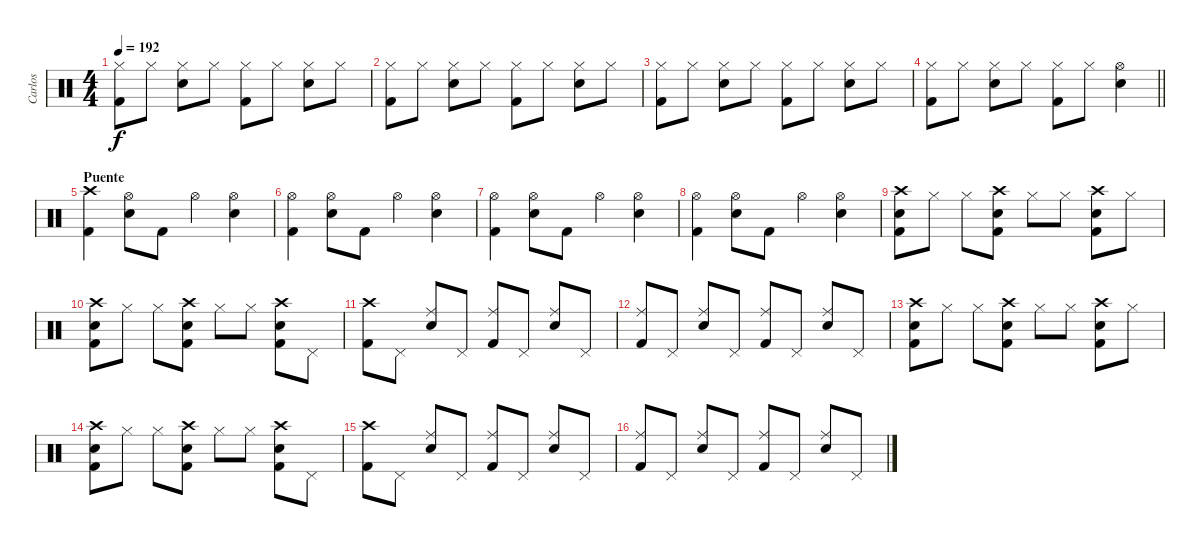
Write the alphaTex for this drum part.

\track ("Carlos" "Carlos") {instrument percussion}
\staff {score}
\articulation defaults
\ts (4 4)
\tempo 192
\clef neutral
\ks c
("Hi-Hat (closed)" "Kick (hit) 2").8{dy f} "Hi-Hat (closed)".8 ("Hi-Hat (closed)" "Snare (hit) 2").8 "Hi-Hat (closed)".8 ("Hi-Hat (closed)" "Kick (hit) 2").8 "Hi-Hat (closed)".8 ("Hi-Hat (closed)" "Snare (hit) 2").8 "Hi-Hat (closed)".8 |
("Hi-Hat (closed)" "Kick (hit) 2").8 "Hi-Hat (closed)".8 ("Hi-Hat (closed)" "Snare (hit) 2").8 "Hi-Hat (closed)".8 ("Hi-Hat (closed)" "Kick (hit) 2").8 "Hi-Hat (closed)".8 ("Hi-Hat (closed)" "Snare (hit) 2").8 "Hi-Hat (closed)".8 |
("Hi-Hat (closed)" "Kick (hit) 2").8 "Hi-Hat (closed)".8 ("Hi-Hat (closed)" "Snare (hit) 2").8 "Hi-Hat (closed)".8 ("Hi-Hat (closed)" "Kick (hit) 2").8 "Hi-Hat (closed)".8 ("Hi-Hat (closed)" "Snare (hit) 2").8 "Hi-Hat (closed)".8 |
\barLineRight lightlight
("Hi-Hat (closed)" "Kick (hit) 2").8 "Hi-Hat (closed)".8 ("Hi-Hat (closed)" "Snare (hit) 2").8 "Hi-Hat (closed)".8 ("Hi-Hat (closed)" "Kick (hit) 2").8 "Hi-Hat (closed)".8 ("Hi-Hat (open)" "Snare (hit) 2").4 |
\section ("" "Puente")
("Crash high (hit)" "Kick (hit) 2").4 ("Hi-Hat (open)" "Snare (hit) 2").8 "Kick (hit) 2".8 "Hi-Hat (open)".4 ("Hi-Hat (open)" "Snare (hit) 2").4 |
("Hi-Hat (open)" "Kick (hit) 2").4 ("Hi-Hat (open)" "Snare (hit) 2").8 "Kick (hit) 2".8 "Hi-Hat (open)".4 ("Hi-Hat (open)" "Snare (hit) 2").4 |
("Hi-Hat (open)" "Kick (hit) 2").4 ("Hi-Hat (open)" "Snare (hit) 2").8 "Kick (hit) 2".8 "Hi-Hat (open)".4 ("Hi-Hat (open)" "Snare (hit) 2").4 |
("Hi-Hat (open)" "Kick (hit) 2").4 ("Hi-Hat (open)" "Snare (hit) 2").8 "Kick (hit) 2".8 "Hi-Hat (open)".4 ("Hi-Hat (open)" "Snare (hit) 2").4 |
("Crash high (hit)" "Kick (hit) 2" "Snare (hit) 2").8 "Hi-Hat (closed)".8 "Hi-Hat (closed)".8 ("Crash high (hit)" "Kick (hit) 2" "Snare (hit) 2").8 "Hi-Hat (closed)".8 "Hi-Hat (closed)".8 ("Crash high (hit)" "Kick (hit) 2" "Snare (hit) 2").8 "Hi-Hat (closed)".8 |
("Crash high (hit)" "Kick (hit) 2" "Snare (hit) 2").8 "Hi-Hat (closed)".8 "Hi-Hat (closed)".8 ("Crash high (hit)" "Kick (hit) 2" "Snare (hit) 2").8 "Hi-Hat (closed)".8 "Hi-Hat (closed)".8 ("Crash high (hit)" "Kick (hit) 2" "Snare (hit) 2").8 "Pedal Hi-Hat (hit)".8 |
("Crash high (hit)" "Kick (hit) 2").8 "Pedal Hi-Hat (hit)".8 ("Ride (middle)" "Snare (hit) 2").8 "Pedal Hi-Hat (hit)".8 ("Ride (middle)" "Kick (hit) 2").8 "Pedal Hi-Hat (hit)".8 ("Ride (middle)" "Snare (hit) 2").8 "Pedal Hi-Hat (hit)".8 |
("Ride (middle)" "Kick (hit) 2").8 "Pedal Hi-Hat (hit)".8 ("Ride (middle)" "Snare (hit) 2").8 "Pedal Hi-Hat (hit)".8 ("Ride (middle)" "Kick (hit) 2").8 "Pedal Hi-Hat (hit)".8 ("Ride (middle)" "Snare (hit) 2").8 "Pedal Hi-Hat (hit)".8 |
("Crash high (hit)" "Kick (hit) 2" "Snare (hit) 2").8 "Hi-Hat (closed)".8 "Hi-Hat (closed)".8 ("Crash high (hit)" "Kick (hit) 2" "Snare (hit) 2").8 "Hi-Hat (closed)".8 "Hi-Hat (closed)".8 ("Crash high (hit)" "Kick (hit) 2" "Snare (hit) 2").8 "Hi-Hat (closed)".8 |
("Crash high (hit)" "Kick (hit) 2" "Snare (hit) 2").8 "Hi-Hat (closed)".8 "Hi-Hat (closed)".8 ("Crash high (hit)" "Kick (hit) 2" "Snare (hit) 2").8 "Hi-Hat (closed)".8 "Hi-Hat (closed)".8 ("Crash high (hit)" "Kick (hit) 2" "Snare (hit) 2").8 "Pedal Hi-Hat (hit)".8 |
("Crash high (hit)" "Kick (hit) 2").8 "Pedal Hi-Hat (hit)".8 ("Ride (middle)" "Snare (hit) 2").8 "Pedal Hi-Hat (hit)".8 ("Ride (middle)" "Kick (hit) 2").8 "Pedal Hi-Hat (hit)".8 ("Ride (middle)" "Snare (hit) 2").8 "Pedal Hi-Hat (hit)".8 |
("Ride (middle)" "Kick (hit) 2").8 "Pedal Hi-Hat (hit)".8 ("Ride (middle)" "Snare (hit) 2").8 "Pedal Hi-Hat (hit)".8 ("Ride (middle)" "Kick (hit) 2").8 "Pedal Hi-Hat (hit)".8 ("Ride (middle)" "Snare (hit) 2").8 "Pedal Hi-Hat (hit)".8
